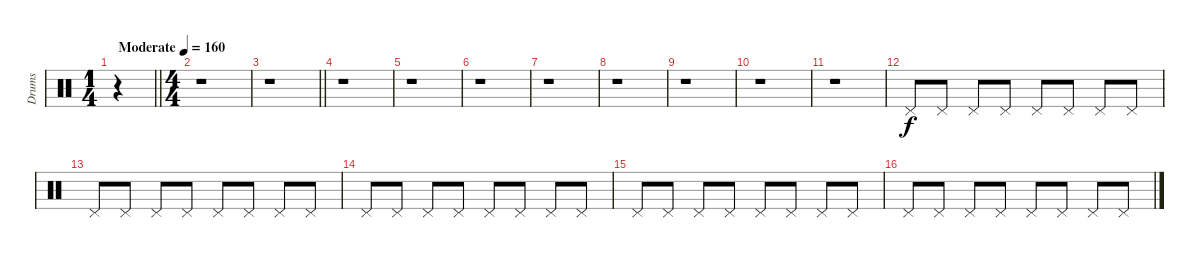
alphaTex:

\track ("Drums" "Drums") {instrument percussion}
\staff {score}
\articulation defaults
\ts (1 4)
\tempo (160 "Moderate")
\clef neutral
\barLineRight lightlight
\ks c
r.4{dy f} |
\ts (4 4)
r.1 |
\barLineRight lightlight
r.1 |
r.1 |
r.1 |
r.1 |
r.1 |
r.1 |
r.1 |
r.1 |
r.1 |
"Pedal Hi-Hat (hit)".8 "Pedal Hi-Hat (hit)".8 "Pedal Hi-Hat (hit)".8 "Pedal Hi-Hat (hit)".8 "Pedal Hi-Hat (hit)".8 "Pedal Hi-Hat (hit)".8 "Pedal Hi-Hat (hit)".8 "Pedal Hi-Hat (hit)".8 |
"Pedal Hi-Hat (hit)".8 "Pedal Hi-Hat (hit)".8 "Pedal Hi-Hat (hit)".8 "Pedal Hi-Hat (hit)".8 "Pedal Hi-Hat (hit)".8 "Pedal Hi-Hat (hit)".8 "Pedal Hi-Hat (hit)".8 "Pedal Hi-Hat (hit)".8 |
"Pedal Hi-Hat (hit)".8 "Pedal Hi-Hat (hit)".8 "Pedal Hi-Hat (hit)".8 "Pedal Hi-Hat (hit)".8 "Pedal Hi-Hat (hit)".8 "Pedal Hi-Hat (hit)".8 "Pedal Hi-Hat (hit)".8 "Pedal Hi-Hat (hit)".8 |
"Pedal Hi-Hat (hit)".8 "Pedal Hi-Hat (hit)".8 "Pedal Hi-Hat (hit)".8 "Pedal Hi-Hat (hit)".8 "Pedal Hi-Hat (hit)".8 "Pedal Hi-Hat (hit)".8 "Pedal Hi-Hat (hit)".8 "Pedal Hi-Hat (hit)".8 |
"Pedal Hi-Hat (hit)".8 "Pedal Hi-Hat (hit)".8 "Pedal Hi-Hat (hit)".8 "Pedal Hi-Hat (hit)".8 "Pedal Hi-Hat (hit)".8 "Pedal Hi-Hat (hit)".8 "Pedal Hi-Hat (hit)".8 "Pedal Hi-Hat (hit)".8
